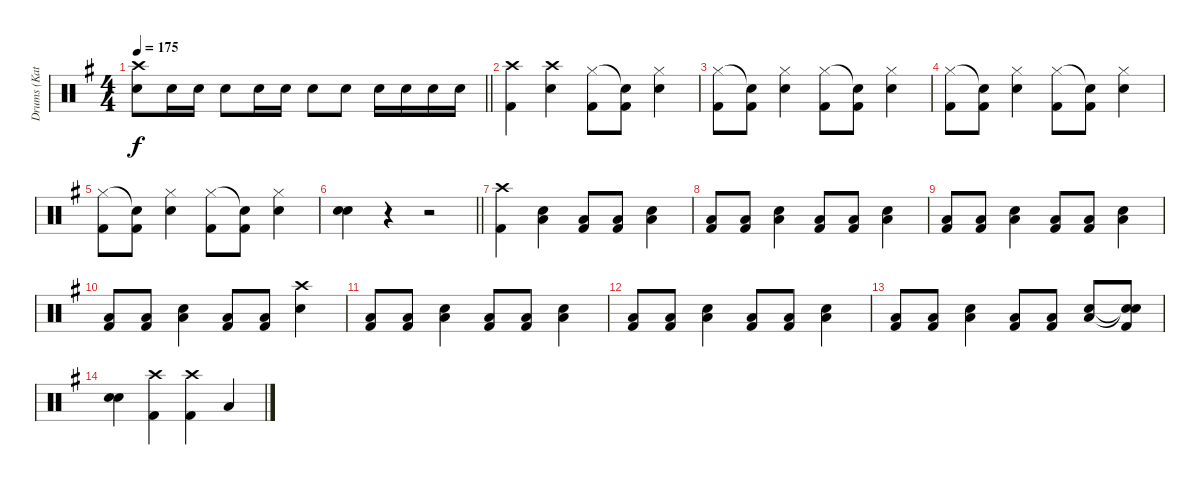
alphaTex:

\track ("Drums (Katsuji)" "Drums (Kat") {instrument percussion}
\staff {score}
\articulation defaults
\ts (4 4)
\tempo 175
\clef neutral
\barLineRight lightlight
\ks g
("Crash high (hit)" "Snare (hit) 2").8{dy f} "Snare (hit) 2".16 "Snare (hit) 2".16 "Snare (hit) 2".8 "Snare (hit) 2".16 "Snare (hit) 2".16 "Snare (hit) 2".8 "Snare (hit) 2".8 "Snare (hit) 2".16 "Snare (hit) 2".16 "Snare (hit) 2".16 "Snare (hit) 2".16 |
("Crash high (hit)" "Kick (hit) 2").4 ("Crash high (hit)" "Snare (hit) 2").4 ("Hi-Hat (closed)" "Kick (hit) 2").8 ("Snare (hit)"{t} "Kick (hit) 2").8 ("Hi-Hat (closed)" "Snare (hit) 2").4 |
("Hi-Hat (closed)" "Kick (hit) 2").8 ("Snare (hit)"{t} "Kick (hit) 2").8 ("Hi-Hat (closed)" "Snare (hit) 2").4 ("Hi-Hat (closed)" "Kick (hit) 2").8 ("Snare (hit)"{t} "Kick (hit) 2").8 ("Hi-Hat (closed)" "Snare (hit) 2").4 |
("Hi-Hat (closed)" "Kick (hit) 2").8 ("Snare (hit)"{t} "Kick (hit) 2").8 ("Hi-Hat (closed)" "Snare (hit) 2").4 ("Hi-Hat (closed)" "Kick (hit) 2").8 ("Snare (hit)"{t} "Kick (hit) 2").8 ("Hi-Hat (closed)" "Snare (hit) 2").4 |
("Hi-Hat (closed)" "Kick (hit) 2").8 ("Snare (hit)"{t} "Kick (hit) 2").8 ("Hi-Hat (closed)" "Snare (hit) 2").4 ("Hi-Hat (closed)" "Kick (hit) 2").8 ("Snare (hit)"{t} "Kick (hit) 2").8 ("Hi-Hat (closed)" "Snare (hit) 2").4 |
\barLineRight lightlight
("Snare (hit) 2" "Snare (hit) 2").4 r.4 r.2 |
("Crash high (hit)" "Kick (hit) 2").4 ("Snare (hit) 2" "Low Tom (hit)").4 ("Low Tom (hit)" "Kick (hit) 2").8 ("Low Tom (hit)" "Kick (hit) 2").8 ("Snare (hit) 2" "Low Tom (hit)").4 |
("Low Tom (hit)" "Kick (hit) 2").8 ("Low Tom (hit)" "Kick (hit) 2").8 ("Snare (hit) 2" "Low Tom (hit)").4 ("Low Tom (hit)" "Kick (hit) 2").8 ("Low Tom (hit)" "Kick (hit) 2").8 ("Snare (hit) 2" "Low Tom (hit)").4 |
("Low Tom (hit)" "Kick (hit) 2").8 ("Low Tom (hit)" "Kick (hit) 2").8 ("Snare (hit) 2" "Low Tom (hit)").4 ("Low Tom (hit)" "Kick (hit) 2").8 ("Low Tom (hit)" "Kick (hit) 2").8 ("Snare (hit) 2" "Low Tom (hit)").4 |
("Low Tom (hit)" "Kick (hit) 2").8 ("Low Tom (hit)" "Kick (hit) 2").8 ("Snare (hit) 2" "Low Tom (hit)").4 ("Low Tom (hit)" "Kick (hit) 2").8 ("Low Tom (hit)" "Kick (hit) 2").8 ("Crash high (hit)" "Snare (hit) 2").4 |
("Low Tom (hit)" "Kick (hit) 2").8 ("Low Tom (hit)" "Kick (hit) 2").8 ("Snare (hit) 2" "Low Tom (hit)").4 ("Low Tom (hit)" "Kick (hit) 2").8 ("Low Tom (hit)" "Kick (hit) 2").8 ("Snare (hit) 2" "Low Tom (hit)").4 |
("Low Tom (hit)" "Kick (hit) 2").8 ("Low Tom (hit)" "Kick (hit) 2").8 ("Snare (hit) 2" "Low Tom (hit)").4 ("Low Tom (hit)" "Kick (hit) 2").8 ("Low Tom (hit)" "Kick (hit) 2").8 ("Snare (hit) 2" "Low Tom (hit)").4 |
("Low Tom (hit)" "Kick (hit) 2").8 ("Low Tom (hit)" "Kick (hit) 2").8 ("Snare (hit) 2" "Low Tom (hit)").4 ("Low Tom (hit)" "Kick (hit) 2").8 ("Low Tom (hit)" "Kick (hit) 2").8 ("Snare (hit) 2" "Low Tom (hit)").8 ("Snare (hit)"{t} "Snare (hit)"{t} "Kick (hit) 2").8 |
("Snare (hit) 2" "Snare (hit) 2").4 ("Crash high (hit)" "Kick (hit) 2").4 ("Crash high (hit)" "Kick (hit) 2").4 "Low Tom (hit)".4
